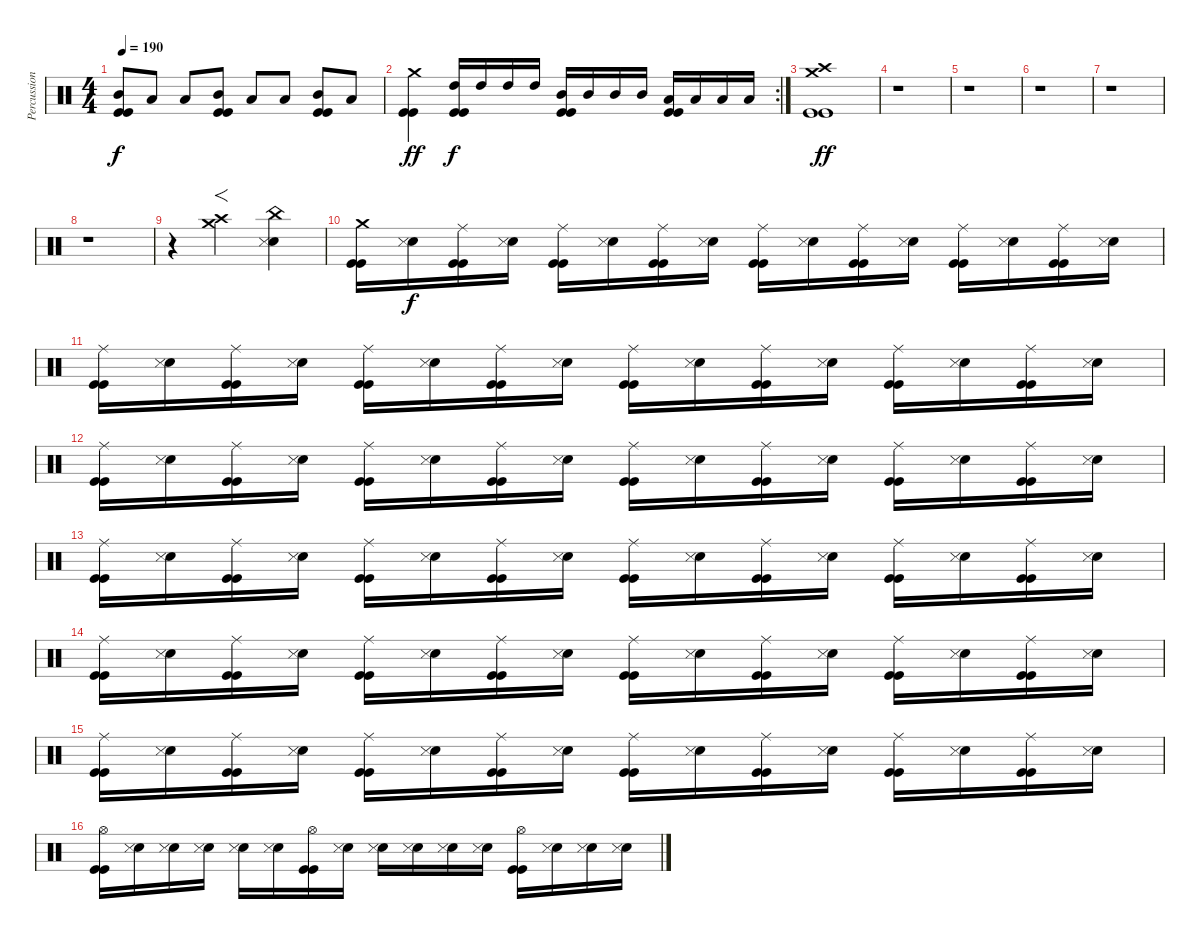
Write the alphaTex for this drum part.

\track ("Percussion" "Percussion") {instrument percussion}
\staff {score}
\articulation defaults
\ts (4 4)
\tempo 190
\clef neutral
\ks c
("Mid Tom (hit)" "Kick (hit)" "Kick (hit)").8{dy f} "Low Tom (hit)".8 "Low Tom (hit)".8 ("Mid Tom (hit)" "Kick (hit)" "Kick (hit)").8 "Low Tom (hit)".8 "Low Tom (hit)".8 ("Mid Tom (hit)" "Kick (hit)" "Kick (hit)").8 "Low Tom (hit)".8 |
\rc 2
("Crash medium (hit)" "Kick (hit)" "Kick (hit)").4{dy ff} ("High Tom (hit)" "Kick (hit)" "Kick (hit)").16{dy f} "High Tom (hit)".16 "High Tom (hit)".16 "High Tom (hit)".16 ("Mid Tom (hit)" "Kick (hit)" "Kick (hit)").16 "Mid Tom (hit)".16 "Mid Tom (hit)".16 "Mid Tom (hit)".16 ("Low Tom (hit)" "Kick (hit)" "Kick (hit)").16 "Low Tom (hit)".16 "Low Tom (hit)".16 "Low Tom (hit)".16 |
("Crash high (hit)" "Crash medium (hit)" "Kick (hit)" "Kick (hit)").1{dy ff} |
r.1 |
r.1 |
r.1 |
r.1 |
r.1 |
r.4 ("Crash high (hit)" "Crash medium (hit)").2{f} ("China (hit)" "Snare (hit) 2" "Snare (side stick) 3").4 |
("Crash medium (hit)" "Kick (hit)" "Kick (hit)").16 ("Snare (hit) 2" "Snare (side stick) 3").16{dy f} ("Ride (middle)" "Kick (hit)" "Kick (hit)").16 ("Snare (hit) 2" "Snare (side stick) 3").16 ("Ride (middle)" "Kick (hit)" "Kick (hit)").16 ("Snare (hit) 2" "Snare (side stick) 3").16 ("Ride (middle)" "Kick (hit)" "Kick (hit)").16 ("Snare (hit) 2" "Snare (side stick) 3").16 ("Ride (middle)" "Kick (hit)" "Kick (hit)").16 ("Snare (hit) 2" "Snare (side stick) 3").16 ("Ride (middle)" "Kick (hit)" "Kick (hit)").16 ("Snare (hit) 2" "Snare (side stick) 3").16 ("Ride (middle)" "Kick (hit)" "Kick (hit)").16 ("Snare (hit) 2" "Snare (side stick) 3").16 ("Ride (middle)" "Kick (hit)" "Kick (hit)").16 ("Snare (hit) 2" "Snare (side stick) 3").16 |
("Ride (middle)" "Kick (hit)" "Kick (hit)").16 ("Snare (hit) 2" "Snare (side stick) 3").16 ("Ride (middle)" "Kick (hit)" "Kick (hit)").16 ("Snare (hit) 2" "Snare (side stick) 3").16 ("Ride (middle)" "Kick (hit)" "Kick (hit)").16 ("Snare (hit) 2" "Snare (side stick) 3").16 ("Ride (middle)" "Kick (hit)" "Kick (hit)").16 ("Snare (hit) 2" "Snare (side stick) 3").16 ("Ride (middle)" "Kick (hit)" "Kick (hit)").16 ("Snare (hit) 2" "Snare (side stick) 3").16 ("Ride (middle)" "Kick (hit)" "Kick (hit)").16 ("Snare (hit) 2" "Snare (side stick) 3").16 ("Ride (middle)" "Kick (hit)" "Kick (hit)").16 ("Snare (hit) 2" "Snare (side stick) 3").16 ("Ride (middle)" "Kick (hit)" "Kick (hit)").16 ("Snare (hit) 2" "Snare (side stick) 3").16 |
("Ride (middle)" "Kick (hit)" "Kick (hit)").16 ("Snare (hit) 2" "Snare (side stick) 3").16 ("Ride (middle)" "Kick (hit)" "Kick (hit)").16 ("Snare (hit) 2" "Snare (side stick) 3").16 ("Ride (middle)" "Kick (hit)" "Kick (hit)").16 ("Snare (hit) 2" "Snare (side stick) 3").16 ("Ride (middle)" "Kick (hit)" "Kick (hit)").16 ("Snare (hit) 2" "Snare (side stick) 3").16 ("Ride (middle)" "Kick (hit)" "Kick (hit)").16 ("Snare (hit) 2" "Snare (side stick) 3").16 ("Ride (middle)" "Kick (hit)" "Kick (hit)").16 ("Snare (hit) 2" "Snare (side stick) 3").16 ("Ride (middle)" "Kick (hit)" "Kick (hit)").16 ("Snare (hit) 2" "Snare (side stick) 3").16 ("Ride (middle)" "Kick (hit)" "Kick (hit)").16 ("Snare (hit) 2" "Snare (side stick) 3").16 |
("Ride (middle)" "Kick (hit)" "Kick (hit)").16 ("Snare (hit) 2" "Snare (side stick) 3").16 ("Ride (middle)" "Kick (hit)" "Kick (hit)").16 ("Snare (hit) 2" "Snare (side stick) 3").16 ("Ride (middle)" "Kick (hit)" "Kick (hit)").16 ("Snare (hit) 2" "Snare (side stick) 3").16 ("Ride (middle)" "Kick (hit)" "Kick (hit)").16 ("Snare (hit) 2" "Snare (side stick) 3").16 ("Ride (middle)" "Kick (hit)" "Kick (hit)").16 ("Snare (hit) 2" "Snare (side stick) 3").16 ("Ride (middle)" "Kick (hit)" "Kick (hit)").16 ("Snare (hit) 2" "Snare (side stick) 3").16 ("Ride (middle)" "Kick (hit)" "Kick (hit)").16 ("Snare (hit) 2" "Snare (side stick) 3").16 ("Ride (middle)" "Kick (hit)" "Kick (hit)").16 ("Snare (hit) 2" "Snare (side stick) 3").16 |
("Ride (middle)" "Kick (hit)" "Kick (hit)").16 ("Snare (hit) 2" "Snare (side stick) 3").16 ("Ride (middle)" "Kick (hit)" "Kick (hit)").16 ("Snare (hit) 2" "Snare (side stick) 3").16 ("Ride (middle)" "Kick (hit)" "Kick (hit)").16 ("Snare (hit) 2" "Snare (side stick) 3").16 ("Ride (middle)" "Kick (hit)" "Kick (hit)").16 ("Snare (hit) 2" "Snare (side stick) 3").16 ("Ride (middle)" "Kick (hit)" "Kick (hit)").16 ("Snare (hit) 2" "Snare (side stick) 3").16 ("Ride (middle)" "Kick (hit)" "Kick (hit)").16 ("Snare (hit) 2" "Snare (side stick) 3").16 ("Ride (middle)" "Kick (hit)" "Kick (hit)").16 ("Snare (hit) 2" "Snare (side stick) 3").16 ("Ride (middle)" "Kick (hit)" "Kick (hit)").16 ("Snare (hit) 2" "Snare (side stick) 3").16 |
("Ride (middle)" "Kick (hit)" "Kick (hit)").16 ("Snare (hit) 2" "Snare (side stick) 3").16 ("Ride (middle)" "Kick (hit)" "Kick (hit)").16 ("Snare (hit) 2" "Snare (side stick) 3").16 ("Ride (middle)" "Kick (hit)" "Kick (hit)").16 ("Snare (hit) 2" "Snare (side stick) 3").16 ("Ride (middle)" "Kick (hit)" "Kick (hit)").16 ("Snare (hit) 2" "Snare (side stick) 3").16 ("Ride (middle)" "Kick (hit)" "Kick (hit)").16 ("Snare (hit) 2" "Snare (side stick) 3").16 ("Ride (middle)" "Kick (hit)" "Kick (hit)").16 ("Snare (hit) 2" "Snare (side stick) 3").16 ("Ride (middle)" "Kick (hit)" "Kick (hit)").16 ("Snare (hit) 2" "Snare (side stick) 3").16 ("Ride (middle)" "Kick (hit)" "Kick (hit)").16 ("Snare (hit) 2" "Snare (side stick) 3").16 |
("Hi-Hat (open)" "Kick (hit)" "Kick (hit)").16 ("Snare (hit) 2" "Snare (side stick) 3").16 ("Snare (hit) 2" "Snare (side stick) 3").16 ("Snare (hit) 2" "Snare (side stick) 3").16 ("Snare (hit) 2" "Snare (side stick) 3").16 ("Snare (hit) 2" "Snare (side stick) 3").16 ("Hi-Hat (open)" "Kick (hit)" "Kick (hit)").16 ("Snare (hit) 2" "Snare (side stick) 3").16 ("Snare (hit) 2" "Snare (side stick) 3").16 ("Snare (hit) 2" "Snare (side stick) 3").16 ("Snare (hit) 2" "Snare (side stick) 3").16 ("Snare (hit) 2" "Snare (side stick) 3").16 ("Hi-Hat (open)" "Kick (hit)" "Kick (hit)").16 ("Snare (hit) 2" "Snare (side stick) 3").16 ("Snare (hit) 2" "Snare (side stick) 3").16 ("Snare (hit) 2" "Snare (side stick) 3").16
